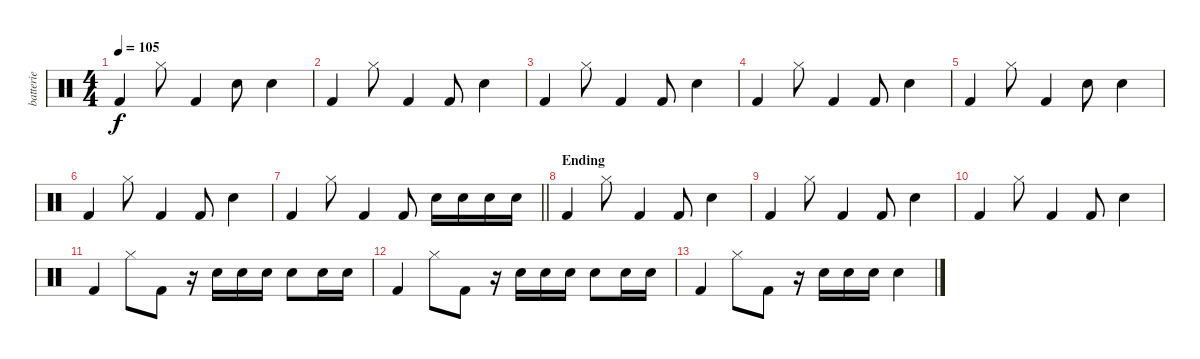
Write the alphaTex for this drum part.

\track ("batterie" "batterie") {instrument percussion}
\staff {score}
\articulation defaults
\ts (4 4)
\tempo 105
\clef neutral
\ks c "Kick (hit) 2".4{dy f} "Hi-Hat (closed)".8 "Kick (hit) 2".4 "Electric Snare (hit)".8 "Electric Snare (hit)".4
|
"Kick (hit) 2".4 "Hi-Hat (closed)".8 "Kick (hit) 2".4 "Kick (hit) 2".8 "Electric Snare (hit)".4 |
"Kick (hit) 2".4 "Hi-Hat (closed)".8 "Kick (hit) 2".4 "Kick (hit) 2".8 "Electric Snare (hit)".4 |
"Kick (hit) 2".4 "Hi-Hat (closed)".8 "Kick (hit) 2".4 "Kick (hit) 2".8 "Electric Snare (hit)".4 |
"Kick (hit) 2".4 "Hi-Hat (closed)".8 "Kick (hit) 2".4 "Electric Snare (hit)".8 "Electric Snare (hit)".4 |
"Kick (hit) 2".4 "Hi-Hat (closed)".8 "Kick (hit) 2".4 "Kick (hit) 2".8 "Electric Snare (hit)".4 |
\barLineRight lightlight "Kick (hit) 2".4 "Hi-Hat (closed)".8 "Kick (hit) 2".4 "Kick (hit) 2".8 "Electric Snare (hit)".16 "Electric Snare (hit)".16 "Electric Snare (hit)".16 "Electric Snare (hit)".16
|
\section ("" "Ending")
"Kick (hit) 2".4 "Hi-Hat (closed)".8 "Kick (hit) 2".4 "Kick (hit) 2".8 "Electric Snare (hit)".4 |
"Kick (hit) 2".4 "Hi-Hat (closed)".8 "Kick (hit) 2".4 "Kick (hit) 2".8 "Electric Snare (hit)".4 |
"Kick (hit) 2".4 "Hi-Hat (closed)".8 "Kick (hit) 2".4 "Kick (hit) 2".8 "Electric Snare (hit)".4 |
"Kick (hit) 2".4 "Hi-Hat (closed)".8 "Kick (hit) 2".8 r.16 "Electric Snare (hit)".16 "Electric Snare (hit)".16 "Electric Snare (hit)".16 "Electric Snare (hit)".8 "Electric Snare (hit)".16 "Electric Snare (hit)".16 |
"Kick (hit) 2".4 "Hi-Hat (closed)".8 "Kick (hit) 2".8 r.16 "Electric Snare (hit)".16 "Electric Snare (hit)".16 "Electric Snare (hit)".16 "Electric Snare (hit)".8 "Electric Snare (hit)".16 "Electric Snare (hit)".16 |
"Kick (hit) 2".4 "Hi-Hat (closed)".8 "Kick (hit) 2".8 r.16 "Electric Snare (hit)".16 "Electric Snare (hit)".16 "Electric Snare (hit)".16 "Electric Snare (hit)".4
